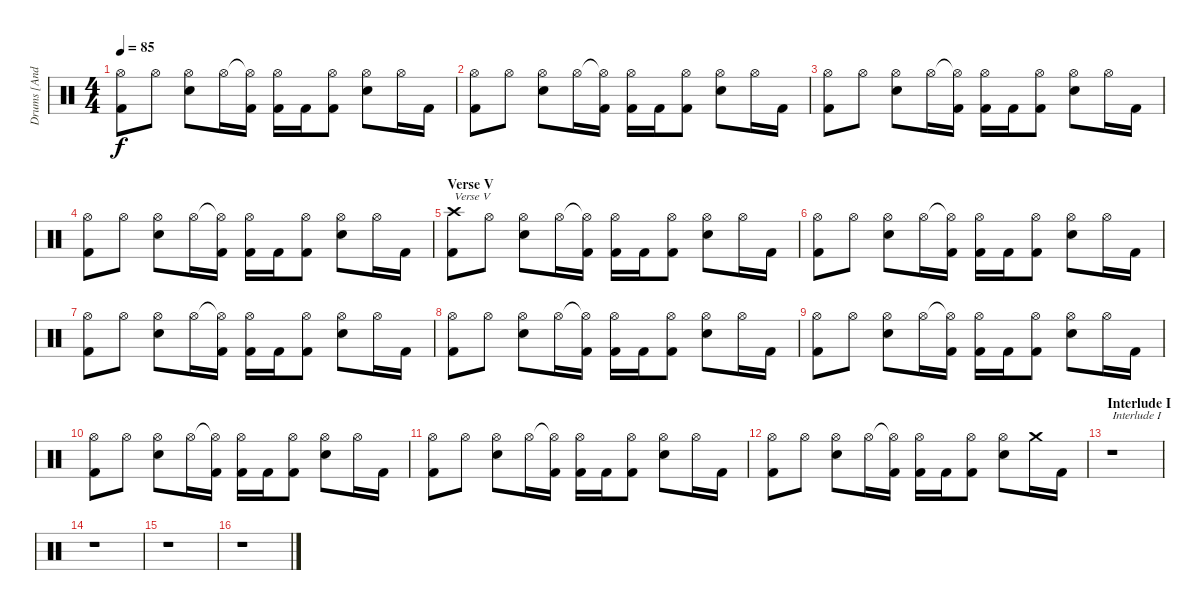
\track ("Drums [Anders Kobro]" "Drums [And") {instrument percussion}
\staff {score}
\articulation defaults
\ts (4 4)
\tempo 85
\clef neutral
\ks c
("Hi-Hat (open)" "Kick (hit) 2").8{dy f} "Hi-Hat (open)".8 ("Hi-Hat (open)" "Electric Snare (hit)").8 "Hi-Hat (open)".16 ("Hi-Hat (open)"{t} "Kick (hit) 2").16 ("Hi-Hat (open)" "Kick (hit) 2").16 "Kick (hit) 2".16 ("Hi-Hat (open)" "Kick (hit) 2").8 ("Hi-Hat (open)" "Electric Snare (hit)").8 "Hi-Hat (open)".16 "Kick (hit) 2".16 |
("Hi-Hat (open)" "Kick (hit) 2").8 "Hi-Hat (open)".8 ("Hi-Hat (open)" "Electric Snare (hit)").8 "Hi-Hat (open)".16 ("Hi-Hat (open)"{t} "Kick (hit) 2").16 ("Hi-Hat (open)" "Kick (hit) 2").16 "Kick (hit) 2".16 ("Hi-Hat (open)" "Kick (hit) 2").8 ("Hi-Hat (open)" "Electric Snare (hit)").8 "Hi-Hat (open)".16 "Kick (hit) 2".16 |
("Hi-Hat (open)" "Kick (hit) 2").8 "Hi-Hat (open)".8 ("Hi-Hat (open)" "Electric Snare (hit)").8 "Hi-Hat (open)".16 ("Hi-Hat (open)"{t} "Kick (hit) 2").16 ("Hi-Hat (open)" "Kick (hit) 2").16 "Kick (hit) 2".16 ("Hi-Hat (open)" "Kick (hit) 2").8 ("Hi-Hat (open)" "Electric Snare (hit)").8 "Hi-Hat (open)".16 "Kick (hit) 2".16 |
("Hi-Hat (open)" "Kick (hit) 2").8 "Hi-Hat (open)".8 ("Hi-Hat (open)" "Electric Snare (hit)").8 "Hi-Hat (open)".16 ("Hi-Hat (open)"{t} "Kick (hit) 2").16 ("Hi-Hat (open)" "Kick (hit) 2").16 "Kick (hit) 2".16 ("Hi-Hat (open)" "Kick (hit) 2").8 ("Hi-Hat (open)" "Electric Snare (hit)").8 "Hi-Hat (open)".16 "Kick (hit) 2".16 |
\section ("" "Verse V")
("Crash high (hit)" "Kick (hit) 2").8{txt "Verse V"} "Hi-Hat (open)".8 ("Hi-Hat (open)" "Electric Snare (hit)").8 "Hi-Hat (open)".16 ("Hi-Hat (open)"{t} "Kick (hit) 2").16 ("Hi-Hat (open)" "Kick (hit) 2").16 "Kick (hit) 2".16 ("Hi-Hat (open)" "Kick (hit) 2").8 ("Hi-Hat (open)" "Electric Snare (hit)").8 "Hi-Hat (open)".16 "Kick (hit) 2".16 |
("Hi-Hat (open)" "Kick (hit) 2").8 "Hi-Hat (open)".8 ("Hi-Hat (open)" "Electric Snare (hit)").8 "Hi-Hat (open)".16 ("Hi-Hat (open)"{t} "Kick (hit) 2").16 ("Hi-Hat (open)" "Kick (hit) 2").16 "Kick (hit) 2".16 ("Hi-Hat (open)" "Kick (hit) 2").8 ("Hi-Hat (open)" "Electric Snare (hit)").8 "Hi-Hat (open)".16 "Kick (hit) 2".16 |
("Hi-Hat (open)" "Kick (hit) 2").8 "Hi-Hat (open)".8 ("Hi-Hat (open)" "Electric Snare (hit)").8 "Hi-Hat (open)".16 ("Hi-Hat (open)"{t} "Kick (hit) 2").16 ("Hi-Hat (open)" "Kick (hit) 2").16 "Kick (hit) 2".16 ("Hi-Hat (open)" "Kick (hit) 2").8 ("Hi-Hat (open)" "Electric Snare (hit)").8 "Hi-Hat (open)".16 "Kick (hit) 2".16 |
("Hi-Hat (open)" "Kick (hit) 2").8 "Hi-Hat (open)".8 ("Hi-Hat (open)" "Electric Snare (hit)").8 "Hi-Hat (open)".16 ("Hi-Hat (open)"{t} "Kick (hit) 2").16 ("Hi-Hat (open)" "Kick (hit) 2").16 "Kick (hit) 2".16 ("Hi-Hat (open)" "Kick (hit) 2").8 ("Hi-Hat (open)" "Electric Snare (hit)").8 "Hi-Hat (open)".16 "Kick (hit) 2".16 |
("Hi-Hat (open)" "Kick (hit) 2").8 "Hi-Hat (open)".8 ("Hi-Hat (open)" "Electric Snare (hit)").8 "Hi-Hat (open)".16 ("Hi-Hat (open)"{t} "Kick (hit) 2").16 ("Hi-Hat (open)" "Kick (hit) 2").16 "Kick (hit) 2".16 ("Hi-Hat (open)" "Kick (hit) 2").8 ("Hi-Hat (open)" "Electric Snare (hit)").8 "Hi-Hat (open)".16 "Kick (hit) 2".16 |
("Hi-Hat (open)" "Kick (hit) 2").8 "Hi-Hat (open)".8 ("Hi-Hat (open)" "Electric Snare (hit)").8 "Hi-Hat (open)".16 ("Hi-Hat (open)"{t} "Kick (hit) 2").16 ("Hi-Hat (open)" "Kick (hit) 2").16 "Kick (hit) 2".16 ("Hi-Hat (open)" "Kick (hit) 2").8 ("Hi-Hat (open)" "Electric Snare (hit)").8 "Hi-Hat (open)".16 "Kick (hit) 2".16 |
("Hi-Hat (open)" "Kick (hit) 2").8 "Hi-Hat (open)".8 ("Hi-Hat (open)" "Electric Snare (hit)").8 "Hi-Hat (open)".16 ("Hi-Hat (open)"{t} "Kick (hit) 2").16 ("Hi-Hat (open)" "Kick (hit) 2").16 "Kick (hit) 2".16 ("Hi-Hat (open)" "Kick (hit) 2").8 ("Hi-Hat (open)" "Electric Snare (hit)").8 "Hi-Hat (open)".16 "Kick (hit) 2".16 |
("Hi-Hat (open)" "Kick (hit) 2").8 "Hi-Hat (open)".8 ("Hi-Hat (open)" "Electric Snare (hit)").8 "Hi-Hat (open)".16 ("Hi-Hat (open)"{t} "Kick (hit) 2").16 ("Hi-Hat (open)" "Kick (hit) 2").16 "Kick (hit) 2".16 ("Hi-Hat (open)" "Kick (hit) 2").8 ("Hi-Hat (open)" "Electric Snare (hit)").8 "Crash medium (hit)".16 "Kick (hit) 2".16 |
\section ("" "Interlude I")
r.1{txt "Interlude I"} |
r.1 |
r.1 |
r.1
